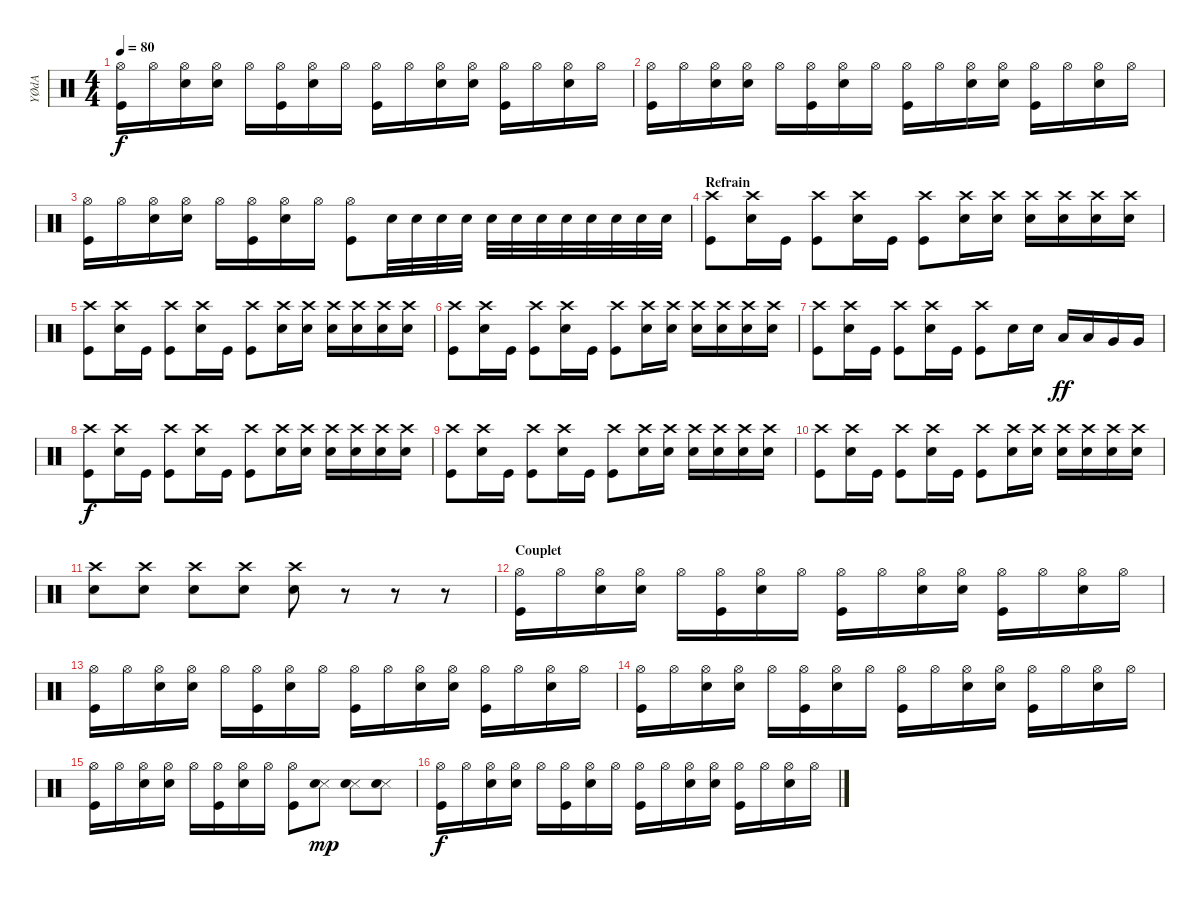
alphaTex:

\track ("YØdA" "YØdA") {instrument percussion}
\staff {score}
\articulation defaults
\ts (4 4)
\tempo 80
\clef neutral
\ks c
("Hi-Hat (open)" "Kick (hit)").16{dy f} "Hi-Hat (open)".16 ("Hi-Hat (open)" "Electric Snare (hit)").16 ("Hi-Hat (open)" "Electric Snare (hit)").16 "Hi-Hat (open)".16 ("Hi-Hat (open)" "Kick (hit)").16 ("Hi-Hat (open)" "Electric Snare (hit)").16 "Hi-Hat (open)".16 ("Hi-Hat (open)" "Kick (hit)").16 "Hi-Hat (open)".16 ("Hi-Hat (open)" "Electric Snare (hit)").16 ("Hi-Hat (open)" "Electric Snare (hit)").16 ("Hi-Hat (open)" "Kick (hit)").16 "Hi-Hat (open)".16 ("Hi-Hat (open)" "Electric Snare (hit)").16 "Hi-Hat (open)".16 |
("Hi-Hat (open)" "Kick (hit)").16 "Hi-Hat (open)".16 ("Hi-Hat (open)" "Electric Snare (hit)").16 ("Hi-Hat (open)" "Electric Snare (hit)").16 "Hi-Hat (open)".16 ("Hi-Hat (open)" "Kick (hit)").16 ("Hi-Hat (open)" "Electric Snare (hit)").16 "Hi-Hat (open)".16 ("Hi-Hat (open)" "Kick (hit)").16 "Hi-Hat (open)".16 ("Hi-Hat (open)" "Electric Snare (hit)").16 ("Hi-Hat (open)" "Electric Snare (hit)").16 ("Hi-Hat (open)" "Kick (hit)").16 "Hi-Hat (open)".16 ("Hi-Hat (open)" "Electric Snare (hit)").16 "Hi-Hat (open)".16 |
("Hi-Hat (open)" "Kick (hit)").16 "Hi-Hat (open)".16 ("Hi-Hat (open)" "Electric Snare (hit)").16 ("Hi-Hat (open)" "Electric Snare (hit)").16 "Hi-Hat (open)".16 ("Hi-Hat (open)" "Kick (hit)").16 ("Hi-Hat (open)" "Electric Snare (hit)").16 "Hi-Hat (open)".16 ("Hi-Hat (open)" "Kick (hit)").8 "Electric Snare (hit)".32 "Electric Snare (hit)".32 "Electric Snare (hit)".32 "Electric Snare (hit)".32 "Electric Snare (hit)".32 "Electric Snare (hit)".32 "Electric Snare (hit)".32 "Electric Snare (hit)".32 "Electric Snare (hit)".32 "Electric Snare (hit)".32 "Electric Snare (hit)".32 "Electric Snare (hit)".32 |
\section ("" "Refrain")
("Crash high (hit)" "Kick (hit)").8 ("Crash high (hit)" "Electric Snare (hit)").16 "Kick (hit)".16 ("Crash high (hit)" "Kick (hit)").8 ("Crash high (hit)" "Electric Snare (hit)").16 "Kick (hit)".16 ("Crash high (hit)" "Kick (hit)").8 ("Crash high (hit)" "Electric Snare (hit)").16 ("Crash high (hit)" "Electric Snare (hit)").16 ("Crash high (hit)" "Electric Snare (hit)").16 ("Crash high (hit)" "Electric Snare (hit)").16 ("Crash high (hit)" "Electric Snare (hit)").16 ("Crash high (hit)" "Electric Snare (hit)").16 |
("Crash high (hit)" "Kick (hit)").8 ("Crash high (hit)" "Electric Snare (hit)").16 "Kick (hit)".16 ("Crash high (hit)" "Kick (hit)").8 ("Crash high (hit)" "Electric Snare (hit)").16 "Kick (hit)".16 ("Crash high (hit)" "Kick (hit)").8 ("Crash high (hit)" "Electric Snare (hit)").16 ("Crash high (hit)" "Electric Snare (hit)").16 ("Crash high (hit)" "Electric Snare (hit)").16 ("Crash high (hit)" "Electric Snare (hit)").16 ("Crash high (hit)" "Electric Snare (hit)").16 ("Crash high (hit)" "Electric Snare (hit)").16 |
("Crash high (hit)" "Kick (hit)").8 ("Crash high (hit)" "Electric Snare (hit)").16 "Kick (hit)".16 ("Crash high (hit)" "Kick (hit)").8 ("Crash high (hit)" "Electric Snare (hit)").16 "Kick (hit)".16 ("Crash high (hit)" "Kick (hit)").8 ("Crash high (hit)" "Electric Snare (hit)").16 ("Crash high (hit)" "Electric Snare (hit)").16 ("Crash high (hit)" "Electric Snare (hit)").16 ("Crash high (hit)" "Electric Snare (hit)").16 ("Crash high (hit)" "Electric Snare (hit)").16 ("Crash high (hit)" "Electric Snare (hit)").16 |
("Crash high (hit)" "Kick (hit)").8 ("Crash high (hit)" "Electric Snare (hit)").16 "Kick (hit)".16 ("Crash high (hit)" "Kick (hit)").8 ("Crash high (hit)" "Electric Snare (hit)").16 "Kick (hit)".16 ("Crash high (hit)" "Kick (hit)").8 "Electric Snare (hit)".16 "Electric Snare (hit)".16 "Low Tom (hit)".16{dy ff} "Low Tom (hit)".16 "Very Low Tom (hit)".16 "Very Low Tom (hit)".16 |
("Crash high (hit)" "Kick (hit)").8{dy f} ("Crash high (hit)" "Electric Snare (hit)").16 "Kick (hit)".16 ("Crash high (hit)" "Kick (hit)").8 ("Crash high (hit)" "Electric Snare (hit)").16 "Kick (hit)".16 ("Crash high (hit)" "Kick (hit)").8 ("Crash high (hit)" "Electric Snare (hit)").16 ("Crash high (hit)" "Electric Snare (hit)").16 ("Crash high (hit)" "Electric Snare (hit)").16 ("Crash high (hit)" "Electric Snare (hit)").16 ("Crash high (hit)" "Electric Snare (hit)").16 ("Crash high (hit)" "Electric Snare (hit)").16 |
("Crash high (hit)" "Kick (hit)").8 ("Crash high (hit)" "Electric Snare (hit)").16 "Kick (hit)".16 ("Crash high (hit)" "Kick (hit)").8 ("Crash high (hit)" "Electric Snare (hit)").16 "Kick (hit)".16 ("Crash high (hit)" "Kick (hit)").8 ("Crash high (hit)" "Electric Snare (hit)").16 ("Crash high (hit)" "Electric Snare (hit)").16 ("Crash high (hit)" "Electric Snare (hit)").16 ("Crash high (hit)" "Electric Snare (hit)").16 ("Crash high (hit)" "Electric Snare (hit)").16 ("Crash high (hit)" "Electric Snare (hit)").16 |
("Crash high (hit)" "Kick (hit)").8 ("Crash high (hit)" "Electric Snare (hit)").16 "Kick (hit)".16 ("Crash high (hit)" "Kick (hit)").8 ("Crash high (hit)" "Electric Snare (hit)").16 "Kick (hit)".16 ("Crash high (hit)" "Kick (hit)").8 ("Crash high (hit)" "Electric Snare (hit)").16 ("Crash high (hit)" "Electric Snare (hit)").16 ("Crash high (hit)" "Electric Snare (hit)").16 ("Crash high (hit)" "Electric Snare (hit)").16 ("Crash high (hit)" "Electric Snare (hit)").16 ("Crash high (hit)" "Electric Snare (hit)").16 |
("Crash high (hit)" "Electric Snare (hit)").8 ("Crash high (hit)" "Electric Snare (hit)").8 ("Crash high (hit)" "Electric Snare (hit)").8 ("Crash high (hit)" "Electric Snare (hit)").8 ("Crash high (hit)" "Electric Snare (hit)").8 r.8 r.8 r.8 |
\section ("" "Couplet")
("Hi-Hat (open)" "Kick (hit)").16 "Hi-Hat (open)".16 ("Hi-Hat (open)" "Electric Snare (hit)").16 ("Hi-Hat (open)" "Electric Snare (hit)").16 "Hi-Hat (open)".16 ("Hi-Hat (open)" "Kick (hit)").16 ("Hi-Hat (open)" "Electric Snare (hit)").16 "Hi-Hat (open)".16 ("Hi-Hat (open)" "Kick (hit)").16 "Hi-Hat (open)".16 ("Hi-Hat (open)" "Electric Snare (hit)").16 ("Hi-Hat (open)" "Electric Snare (hit)").16 ("Hi-Hat (open)" "Kick (hit)").16 "Hi-Hat (open)".16 ("Hi-Hat (open)" "Electric Snare (hit)").16 "Hi-Hat (open)".16 |
("Hi-Hat (open)" "Kick (hit)").16 "Hi-Hat (open)".16 ("Hi-Hat (open)" "Electric Snare (hit)").16 ("Hi-Hat (open)" "Electric Snare (hit)").16 "Hi-Hat (open)".16 ("Hi-Hat (open)" "Kick (hit)").16 ("Hi-Hat (open)" "Electric Snare (hit)").16 "Hi-Hat (open)".16 ("Hi-Hat (open)" "Kick (hit)").16 "Hi-Hat (open)".16 ("Hi-Hat (open)" "Electric Snare (hit)").16 ("Hi-Hat (open)" "Electric Snare (hit)").16 ("Hi-Hat (open)" "Kick (hit)").16 "Hi-Hat (open)".16 ("Hi-Hat (open)" "Electric Snare (hit)").16 "Hi-Hat (open)".16 |
("Hi-Hat (open)" "Kick (hit)").16 "Hi-Hat (open)".16 ("Hi-Hat (open)" "Electric Snare (hit)").16 ("Hi-Hat (open)" "Electric Snare (hit)").16 "Hi-Hat (open)".16 ("Hi-Hat (open)" "Kick (hit)").16 ("Hi-Hat (open)" "Electric Snare (hit)").16 "Hi-Hat (open)".16 ("Hi-Hat (open)" "Kick (hit)").16 "Hi-Hat (open)".16 ("Hi-Hat (open)" "Electric Snare (hit)").16 ("Hi-Hat (open)" "Electric Snare (hit)").16 ("Hi-Hat (open)" "Kick (hit)").16 "Hi-Hat (open)".16 ("Hi-Hat (open)" "Electric Snare (hit)").16 "Hi-Hat (open)".16 |
("Hi-Hat (open)" "Kick (hit)").16 "Hi-Hat (open)".16 ("Hi-Hat (open)" "Electric Snare (hit)").16 ("Hi-Hat (open)" "Electric Snare (hit)").16 "Hi-Hat (open)".16 ("Hi-Hat (open)" "Kick (hit)").16 ("Hi-Hat (open)" "Electric Snare (hit)").16 "Hi-Hat (open)".16 ("Hi-Hat (open)" "Kick (hit)").8 ("Snare (side stick) 3" "Snare (hit) 2").8{dy mp} ("Snare (side stick) 3" "Snare (hit) 2").8 ("Snare (side stick) 3" "Snare (hit) 2").8 |
("Hi-Hat (open)" "Kick (hit)").16{dy f} "Hi-Hat (open)".16 ("Hi-Hat (open)" "Electric Snare (hit)").16 ("Hi-Hat (open)" "Electric Snare (hit)").16 "Hi-Hat (open)".16 ("Hi-Hat (open)" "Kick (hit)").16 ("Hi-Hat (open)" "Electric Snare (hit)").16 "Hi-Hat (open)".16 ("Hi-Hat (open)" "Kick (hit)").16 "Hi-Hat (open)".16 ("Hi-Hat (open)" "Electric Snare (hit)").16 ("Hi-Hat (open)" "Electric Snare (hit)").16 ("Hi-Hat (open)" "Kick (hit)").16 "Hi-Hat (open)".16 ("Hi-Hat (open)" "Electric Snare (hit)").16 "Hi-Hat (open)".16
